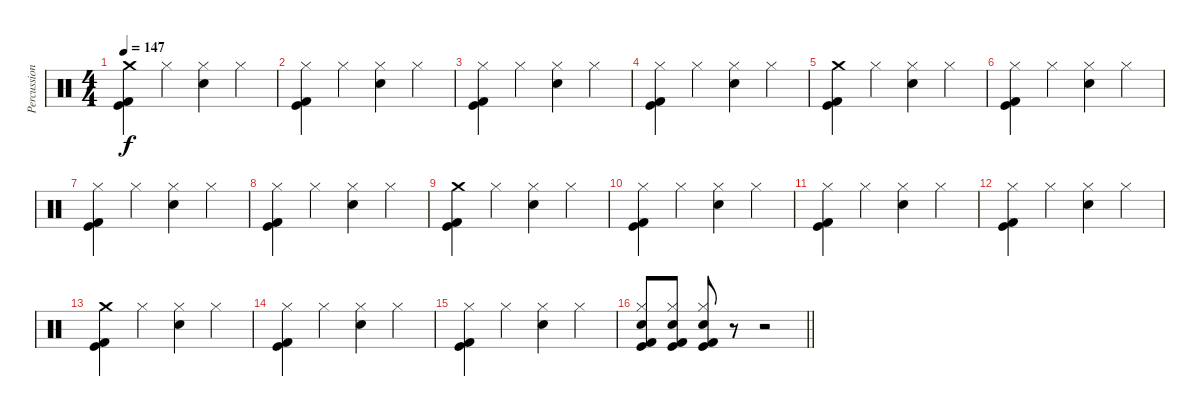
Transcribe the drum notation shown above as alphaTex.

\track ("Percussion" "Percussion") {instrument percussion}
\staff {score}
\articulation defaults
\ts (4 4)
\tempo 147
\clef neutral
\ks c
("Crash medium (hit)" "Kick (hit) 2" "Kick (hit)").4{dy f} "Hi-Hat (closed)".4 ("Hi-Hat (closed)" "Snare (hit) 2").4 "Hi-Hat (closed)".4 |
("Hi-Hat (closed)" "Kick (hit) 2" "Kick (hit)").4 "Hi-Hat (closed)".4 ("Hi-Hat (closed)" "Snare (hit) 2").4 "Hi-Hat (closed)".4 |
("Hi-Hat (closed)" "Kick (hit) 2" "Kick (hit)").4 "Hi-Hat (closed)".4 ("Hi-Hat (closed)" "Snare (hit) 2").4 "Hi-Hat (closed)".4 |
("Hi-Hat (closed)" "Kick (hit) 2" "Kick (hit)").4 "Hi-Hat (closed)".4 ("Hi-Hat (closed)" "Snare (hit) 2").4 "Hi-Hat (closed)".4 |
("Crash medium (hit)" "Kick (hit) 2" "Kick (hit)").4 "Hi-Hat (closed)".4 ("Hi-Hat (closed)" "Snare (hit) 2").4 "Hi-Hat (closed)".4 |
("Hi-Hat (closed)" "Kick (hit) 2" "Kick (hit)").4 "Hi-Hat (closed)".4 ("Hi-Hat (closed)" "Snare (hit) 2").4 "Hi-Hat (closed)".4 |
("Hi-Hat (closed)" "Kick (hit) 2" "Kick (hit)").4 "Hi-Hat (closed)".4 ("Hi-Hat (closed)" "Snare (hit) 2").4 "Hi-Hat (closed)".4 |
("Hi-Hat (closed)" "Kick (hit) 2" "Kick (hit)").4 "Hi-Hat (closed)".4 ("Hi-Hat (closed)" "Snare (hit) 2").4 "Hi-Hat (closed)".4 |
("Crash medium (hit)" "Kick (hit) 2" "Kick (hit)").4 "Hi-Hat (closed)".4 ("Hi-Hat (closed)" "Snare (hit) 2").4 "Hi-Hat (closed)".4 |
("Hi-Hat (closed)" "Kick (hit) 2" "Kick (hit)").4 "Hi-Hat (closed)".4 ("Hi-Hat (closed)" "Snare (hit) 2").4 "Hi-Hat (closed)".4 |
("Hi-Hat (closed)" "Kick (hit) 2" "Kick (hit)").4 "Hi-Hat (closed)".4 ("Hi-Hat (closed)" "Snare (hit) 2").4 "Hi-Hat (closed)".4 |
("Hi-Hat (closed)" "Kick (hit) 2" "Kick (hit)").4 "Hi-Hat (closed)".4 ("Hi-Hat (closed)" "Snare (hit) 2").4 "Hi-Hat (closed)".4 |
("Crash medium (hit)" "Kick (hit) 2" "Kick (hit)").4 "Hi-Hat (closed)".4 ("Hi-Hat (closed)" "Snare (hit) 2").4 "Hi-Hat (closed)".4 |
("Hi-Hat (closed)" "Kick (hit) 2" "Kick (hit)").4 "Hi-Hat (closed)".4 ("Hi-Hat (closed)" "Snare (hit) 2").4 "Hi-Hat (closed)".4 |
("Hi-Hat (closed)" "Kick (hit) 2" "Kick (hit)").4 "Hi-Hat (closed)".4 ("Hi-Hat (closed)" "Snare (hit) 2").4 "Hi-Hat (closed)".4 |
\barLineRight lightlight
("Hi-Hat (closed)" "Snare (hit) 2" "Kick (hit) 2" "Kick (hit)").8 ("Hi-Hat (closed)" "Snare (hit) 2" "Kick (hit) 2" "Kick (hit)").8 ("Hi-Hat (closed)" "Snare (hit) 2" "Kick (hit) 2" "Kick (hit)").8 r.8 r.2
